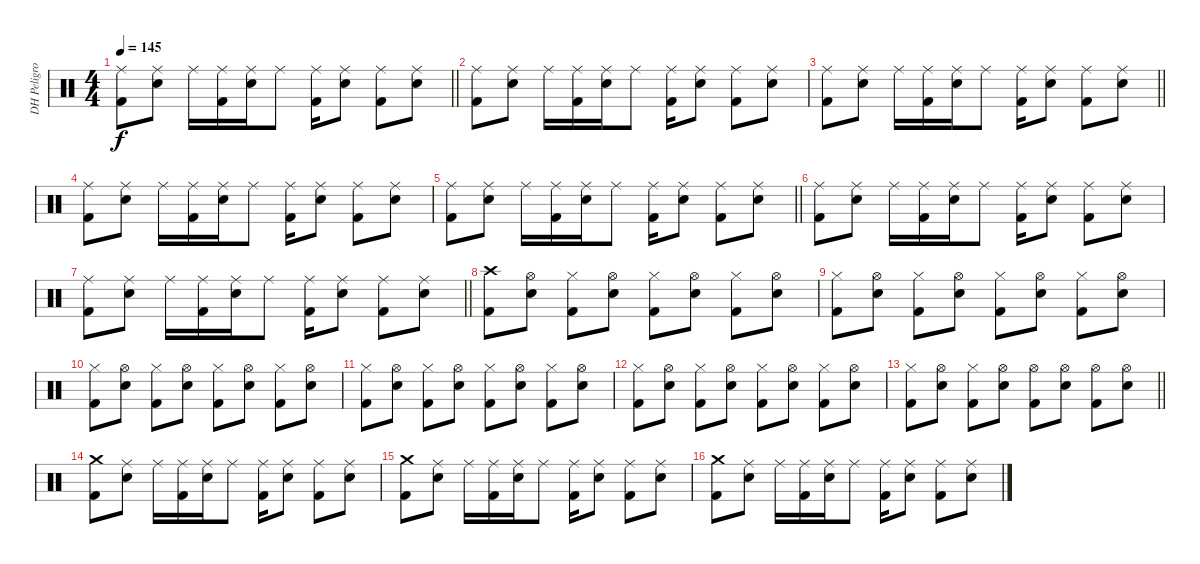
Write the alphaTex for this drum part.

\track ("DH Peligro" "DH Peligro") {instrument percussion}
\staff {score}
\articulation defaults
\ts (4 4)
\tempo 145
\clef neutral
\barLineRight lightlight
\ks c
("Ride (middle)" "Kick (hit) 2").8{dy f} ("Ride (middle)" "Snare (hit) 2").8 "Ride (middle)".16 ("Ride (middle)" "Kick (hit) 2").16 ("Ride (middle)" "Snare (hit) 2").16 "Ride (middle)".8 ("Ride (middle)" "Kick (hit) 2").16 ("Ride (middle)" "Snare (hit) 2").8 ("Ride (middle)" "Kick (hit) 2").8 ("Ride (middle)" "Snare (hit) 2").8 |
("Ride (middle)" "Kick (hit) 2").8 ("Ride (middle)" "Snare (hit) 2").8 "Ride (middle)".16 ("Ride (middle)" "Kick (hit) 2").16 ("Ride (middle)" "Snare (hit) 2").16 "Ride (middle)".8 ("Ride (middle)" "Kick (hit) 2").16 ("Ride (middle)" "Snare (hit) 2").8 ("Ride (middle)" "Kick (hit) 2").8 ("Ride (middle)" "Snare (hit) 2").8 |
\barLineRight lightlight
("Ride (middle)" "Kick (hit) 2").8 ("Ride (middle)" "Snare (hit) 2").8 "Ride (middle)".16 ("Ride (middle)" "Kick (hit) 2").16 ("Ride (middle)" "Snare (hit) 2").16 "Ride (middle)".8 ("Ride (middle)" "Kick (hit) 2").16 ("Ride (middle)" "Snare (hit) 2").8 ("Ride (middle)" "Kick (hit) 2").8 ("Ride (middle)" "Snare (hit) 2").8 |
("Ride (middle)" "Kick (hit) 2").8 ("Ride (middle)" "Snare (hit) 2").8 "Ride (middle)".16 ("Ride (middle)" "Kick (hit) 2").16 ("Ride (middle)" "Snare (hit) 2").16 "Ride (middle)".8 ("Ride (middle)" "Kick (hit) 2").16 ("Ride (middle)" "Snare (hit) 2").8 ("Ride (middle)" "Kick (hit) 2").8 ("Ride (middle)" "Snare (hit) 2").8 |
\barLineRight lightlight
("Ride (middle)" "Kick (hit) 2").8 ("Ride (middle)" "Snare (hit) 2").8 "Ride (middle)".16 ("Ride (middle)" "Kick (hit) 2").16 ("Ride (middle)" "Snare (hit) 2").16 "Ride (middle)".8 ("Ride (middle)" "Kick (hit) 2").16 ("Ride (middle)" "Snare (hit) 2").8 ("Ride (middle)" "Kick (hit) 2").8 ("Ride (middle)" "Snare (hit) 2").8 |
("Ride (middle)" "Kick (hit) 2").8 ("Ride (middle)" "Snare (hit) 2").8 "Ride (middle)".16 ("Ride (middle)" "Kick (hit) 2").16 ("Ride (middle)" "Snare (hit) 2").16 "Ride (middle)".8 ("Ride (middle)" "Kick (hit) 2").16 ("Ride (middle)" "Snare (hit) 2").8 ("Ride (middle)" "Kick (hit) 2").8 ("Ride (middle)" "Snare (hit) 2").8 |
\barLineRight lightlight
("Ride (middle)" "Kick (hit) 2").8 ("Ride (middle)" "Snare (hit) 2").8 "Ride (middle)".16 ("Ride (middle)" "Kick (hit) 2").16 ("Ride (middle)" "Snare (hit) 2").16 "Ride (middle)".8 ("Ride (middle)" "Kick (hit) 2").16 ("Ride (middle)" "Snare (hit) 2").8 ("Ride (middle)" "Kick (hit) 2").8 ("Ride (middle)" "Snare (hit) 2").8 |
("Crash high (hit)" "Kick (hit) 2").8 ("Hi-Hat (open)" "Snare (hit) 2").8 ("Hi-Hat (closed)" "Kick (hit) 2").8 ("Hi-Hat (open)" "Snare (hit) 2").8 ("Hi-Hat (closed)" "Kick (hit) 2").8 ("Hi-Hat (open)" "Snare (hit) 2").8 ("Hi-Hat (closed)" "Kick (hit) 2").8 ("Hi-Hat (open)" "Snare (hit) 2").8 |
("Hi-Hat (closed)" "Kick (hit) 2").8 ("Hi-Hat (open)" "Snare (hit) 2").8 ("Hi-Hat (closed)" "Kick (hit) 2").8 ("Hi-Hat (open)" "Snare (hit) 2").8 ("Hi-Hat (closed)" "Kick (hit) 2").8 ("Hi-Hat (open)" "Snare (hit) 2").8 ("Hi-Hat (closed)" "Kick (hit) 2").8 ("Hi-Hat (open)" "Snare (hit) 2").8 |
("Hi-Hat (closed)" "Kick (hit) 2").8 ("Hi-Hat (open)" "Snare (hit) 2").8 ("Hi-Hat (closed)" "Kick (hit) 2").8 ("Hi-Hat (open)" "Snare (hit) 2").8 ("Hi-Hat (closed)" "Kick (hit) 2").8 ("Hi-Hat (open)" "Snare (hit) 2").8 ("Hi-Hat (closed)" "Kick (hit) 2").8 ("Hi-Hat (open)" "Snare (hit) 2").8 |
("Hi-Hat (closed)" "Kick (hit) 2").8 ("Hi-Hat (open)" "Snare (hit) 2").8 ("Hi-Hat (closed)" "Kick (hit) 2").8 ("Hi-Hat (open)" "Snare (hit) 2").8 ("Hi-Hat (closed)" "Kick (hit) 2").8 ("Hi-Hat (open)" "Snare (hit) 2").8 ("Hi-Hat (closed)" "Kick (hit) 2").8 ("Hi-Hat (open)" "Snare (hit) 2").8 |
("Hi-Hat (closed)" "Kick (hit) 2").8 ("Hi-Hat (open)" "Snare (hit) 2").8 ("Hi-Hat (closed)" "Kick (hit) 2").8 ("Hi-Hat (open)" "Snare (hit) 2").8 ("Hi-Hat (closed)" "Kick (hit) 2").8 ("Hi-Hat (open)" "Snare (hit) 2").8 ("Hi-Hat (closed)" "Kick (hit) 2").8 ("Hi-Hat (open)" "Snare (hit) 2").8 |
\barLineRight lightlight
("Hi-Hat (closed)" "Kick (hit) 2").8 ("Hi-Hat (open)" "Snare (hit) 2").8 ("Hi-Hat (closed)" "Kick (hit) 2").8 ("Hi-Hat (open)" "Snare (hit) 2").8 ("Hi-Hat (open)" "Kick (hit) 2").8 ("Hi-Hat (open)" "Snare (hit) 2").8 ("Hi-Hat (open)" "Kick (hit) 2").8 ("Hi-Hat (open)" "Snare (hit) 2").8 |
("Crash medium (hit)" "Kick (hit) 2").8 ("Ride (middle)" "Snare (hit) 2").8 "Ride (middle)".16 ("Ride (middle)" "Kick (hit) 2").16 ("Ride (middle)" "Snare (hit) 2").16 "Ride (middle)".8 ("Ride (middle)" "Kick (hit) 2").16 ("Ride (middle)" "Snare (hit) 2").8 ("Ride (middle)" "Kick (hit) 2").8 ("Ride (middle)" "Snare (hit) 2").8 |
("Crash medium (hit)" "Kick (hit) 2").8 ("Ride (middle)" "Snare (hit) 2").8 "Ride (middle)".16 ("Ride (middle)" "Kick (hit) 2").16 ("Ride (middle)" "Snare (hit) 2").16 "Ride (middle)".8 ("Ride (middle)" "Kick (hit) 2").16 ("Ride (middle)" "Snare (hit) 2").8 ("Ride (middle)" "Kick (hit) 2").8 ("Ride (middle)" "Snare (hit) 2").8 |
("Crash medium (hit)" "Kick (hit) 2").8 ("Ride (middle)" "Snare (hit) 2").8 "Ride (middle)".16 ("Ride (middle)" "Kick (hit) 2").16 ("Ride (middle)" "Snare (hit) 2").16 "Ride (middle)".8 ("Ride (middle)" "Kick (hit) 2").16 ("Ride (middle)" "Snare (hit) 2").8 ("Ride (middle)" "Kick (hit) 2").8 ("Ride (middle)" "Snare (hit) 2").8
